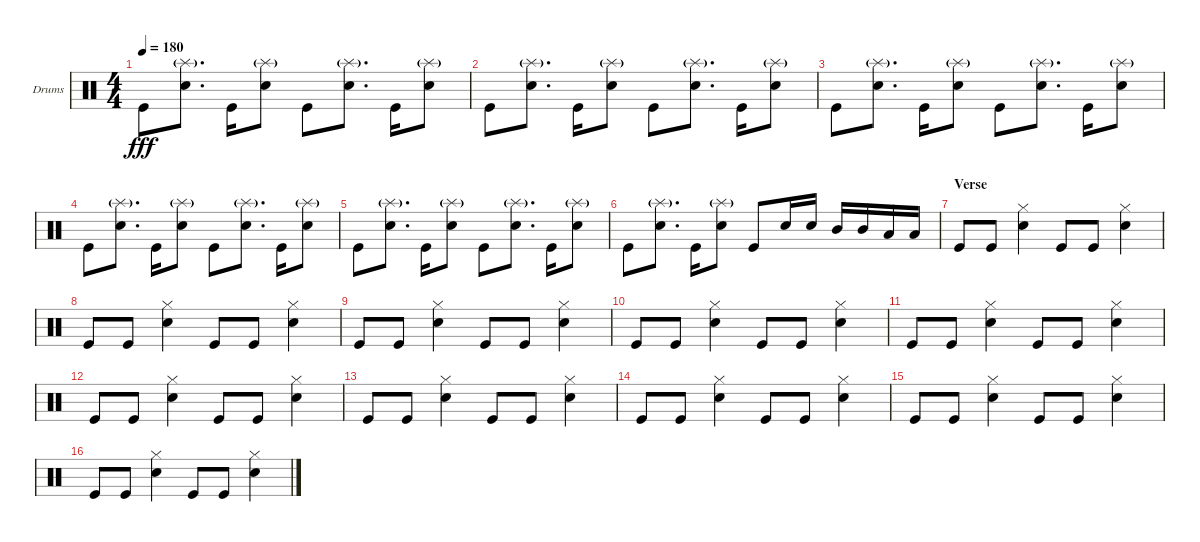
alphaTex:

\bracketExtendMode groupsimilarinstruments
\firstSystemTrackNameOrientation horizontal
\otherSystemsTrackNameOrientation horizontal
\track ("Drumkit" "Drums") {instrument percussion}
\staff {score}
\articulation defaults
\ts (4 4)
\tempo 180
\clef neutral
\scale
0.333333
\ks c "Kick (hit)".8{dy fff}
("Snare (hit) 2" "Splash (hit)"{g}).8{d} "Kick (hit)".16 ("Snare (hit) 2" "Splash (hit)"{g}).8 "Kick (hit)".8 ("Snare (hit) 2" "Splash (hit)"{g}).8{d} "Kick (hit)".16 ("Snare (hit) 2" "Splash (hit)"{g}).8 |
\scale
0.333333 "Kick (hit)".8 ("Snare (hit) 2" "Splash (hit)"{g}).8{d} "Kick (hit)".16 ("Snare (hit) 2" "Splash (hit)"{g}).8 "Kick (hit)".8 ("Snare (hit) 2" "Splash (hit)"{g}).8{d} "Kick (hit)".16 ("Snare (hit) 2" "Splash (hit)"{g}).8 |
\scale
0.333333 "Kick (hit)".8 ("Snare (hit) 2" "Splash (hit)"{g}).8{d} "Kick (hit)".16 ("Snare (hit) 2" "Splash (hit)"{g}).8 "Kick (hit)".8 ("Snare (hit) 2" "Splash (hit)"{g}).8{d} "Kick (hit)".16 ("Snare (hit) 2" "Splash (hit)"{g}).8 |
\scale
0.333333 "Kick (hit)".8 ("Snare (hit) 2" "Splash (hit)"{g}).8{d} "Kick (hit)".16 ("Snare (hit) 2" "Splash (hit)"{g}).8 "Kick (hit)".8 ("Snare (hit) 2" "Splash (hit)"{g}).8{d} "Kick (hit)".16 ("Snare (hit) 2" "Splash (hit)"{g}).8 |
\scale
0.333333 "Kick (hit)".8 ("Snare (hit) 2" "Splash (hit)"{g}).8{d} "Kick (hit)".16 ("Snare (hit) 2" "Splash (hit)"{g}).8 "Kick (hit)".8 ("Snare (hit) 2" "Splash (hit)"{g}).8{d} "Kick (hit)".16 ("Snare (hit) 2" "Splash (hit)"{g}).8 |
\scale
0.333333 "Kick (hit)".8 ("Snare (hit) 2" "Splash (hit)"{g}).8{d} "Kick (hit)".16 ("Snare (hit) 2" "Splash (hit)"{g}).8 "Kick (hit)".8 "Snare (hit) 2".16 "Snare (hit) 2".16 "Mid Tom (hit)".16 "Mid Tom (hit)".16 "Low Tom (hit)".16 "Low Tom (hit)".16 |
\section ("" "Verse")
\scale
0.333333 "Kick (hit)".8 "Kick (hit)".8 ("Snare (hit) 2" "Hi-Hat (closed)").4 "Kick (hit)".8 "Kick (hit)".8 ("Snare (hit) 2" "Hi-Hat (closed)").4 |
\scale
0.333333 "Kick (hit)".8 "Kick (hit)".8 ("Snare (hit) 2" "Hi-Hat (closed)").4 "Kick (hit)".8 "Kick (hit)".8 ("Snare (hit) 2" "Hi-Hat (closed)").4 |
\scale
0.333333 "Kick (hit)".8 "Kick (hit)".8 ("Snare (hit) 2" "Hi-Hat (closed)").4 "Kick (hit)".8 "Kick (hit)".8 ("Snare (hit) 2" "Hi-Hat (closed)").4 |
\scale
0.333333 "Kick (hit)".8 "Kick (hit)".8 ("Snare (hit) 2" "Hi-Hat (closed)").4 "Kick (hit)".8 "Kick (hit)".8 ("Snare (hit) 2" "Hi-Hat (closed)").4 |
\scale
0.333333 "Kick (hit)".8 "Kick (hit)".8 ("Snare (hit) 2" "Hi-Hat (closed)").4 "Kick (hit)".8 "Kick (hit)".8 ("Snare (hit) 2" "Hi-Hat (closed)").4 |
\scale
0.333333 "Kick (hit)".8 "Kick (hit)".8 ("Snare (hit) 2" "Hi-Hat (closed)").4 "Kick (hit)".8 "Kick (hit)".8 ("Snare (hit) 2" "Hi-Hat (closed)").4 |
\scale
0.333333 "Kick (hit)".8 "Kick (hit)".8 ("Snare (hit) 2" "Hi-Hat (closed)").4 "Kick (hit)".8 "Kick (hit)".8 ("Snare (hit) 2" "Hi-Hat (closed)").4 |
\scale
0.333333 "Kick (hit)".8 "Kick (hit)".8 ("Snare (hit) 2" "Hi-Hat (closed)").4 "Kick (hit)".8 "Kick (hit)".8 ("Snare (hit) 2" "Hi-Hat (closed)").4 |
\scale
0.333333 "Kick (hit)".8 "Kick (hit)".8 ("Snare (hit) 2" "Hi-Hat (closed)").4 "Kick (hit)".8 "Kick (hit)".8 ("Snare (hit) 2" "Hi-Hat (closed)").4 |
\scale
0.333333 "Kick (hit)".8 "Kick (hit)".8 ("Snare (hit) 2" "Hi-Hat (closed)").4 "Kick (hit)".8 "Kick (hit)".8 ("Snare (hit) 2" "Hi-Hat (closed)").4
